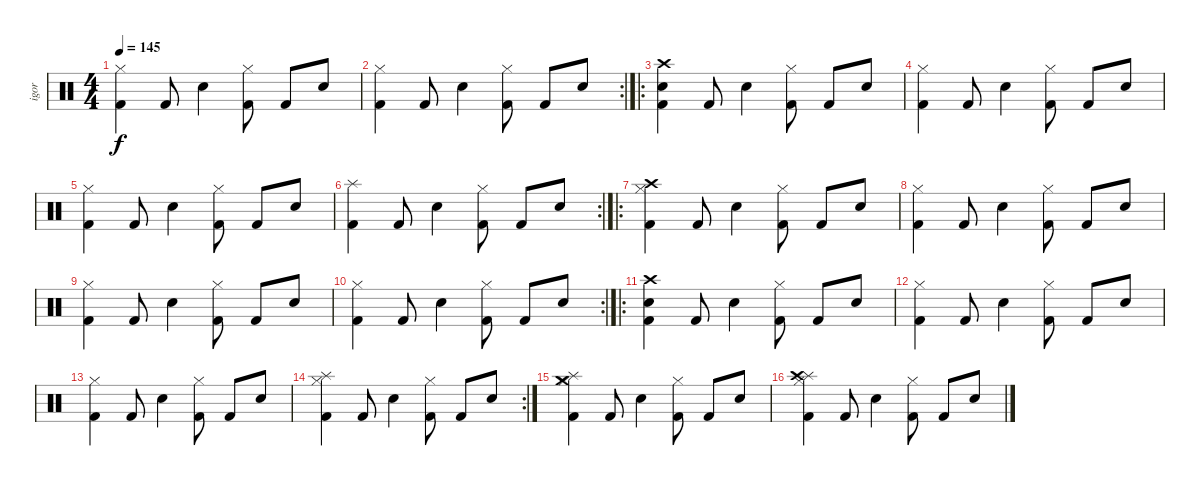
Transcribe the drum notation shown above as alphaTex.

\track ("igor" "igor") {instrument percussion}
\staff {score}
\articulation defaults
\ts (4 4)
\tempo 145
\clef neutral
\ks c
("Hi-Hat (closed)" "Kick (hit) 2").4{dy f} "Kick (hit) 2".8 "Electric Snare (hit)".4 ("Hi-Hat (closed)" "Kick (hit) 2").8 "Kick (hit) 2".8 "Electric Snare (hit)".8 |
\rc 2
("Hi-Hat (closed)" "Kick (hit) 2").4 "Kick (hit) 2".8 "Electric Snare (hit)".4 ("Hi-Hat (closed)" "Kick (hit) 2").8 "Kick (hit) 2".8 "Electric Snare (hit)".8 |
\ro
("Crash high (hit)" "Electric Snare (hit)" "Kick (hit) 2").4 "Kick (hit) 2".8 "Electric Snare (hit)".4 ("Hi-Hat (closed)" "Kick (hit) 2").8 "Kick (hit) 2".8 "Electric Snare (hit)".8 |
("Hi-Hat (closed)" "Kick (hit) 2").4 "Kick (hit) 2".8 "Electric Snare (hit)".4 ("Hi-Hat (closed)" "Kick (hit) 2").8 "Kick (hit) 2".8 "Electric Snare (hit)".8 |
("Hi-Hat (closed)" "Kick (hit) 2").4 "Kick (hit) 2".8 "Electric Snare (hit)".4 ("Hi-Hat (closed)" "Kick (hit) 2").8 "Kick (hit) 2".8 "Electric Snare (hit)".8 |
\rc 2
("Splash (hit)" "Kick (hit) 2").4 "Kick (hit) 2".8 "Electric Snare (hit)".4 ("Hi-Hat (closed)" "Kick (hit) 2").8 "Kick (hit) 2".8 "Electric Snare (hit)".8 |
\ro
("Crash high (hit)" "Hi-Hat (closed)" "Kick (hit) 2").4 "Kick (hit) 2".8 "Electric Snare (hit)".4 ("Hi-Hat (closed)" "Kick (hit) 2").8 "Kick (hit) 2".8 "Electric Snare (hit)".8 |
("Hi-Hat (closed)" "Kick (hit) 2").4 "Kick (hit) 2".8 "Electric Snare (hit)".4 ("Hi-Hat (closed)" "Kick (hit) 2").8 "Kick (hit) 2".8 "Electric Snare (hit)".8 |
("Hi-Hat (closed)" "Kick (hit) 2").4 "Kick (hit) 2".8 "Electric Snare (hit)".4 ("Hi-Hat (closed)" "Kick (hit) 2").8 "Kick (hit) 2".8 "Electric Snare (hit)".8 |
\rc 2
("Hi-Hat (closed)" "Kick (hit) 2").4 "Kick (hit) 2".8 "Electric Snare (hit)".4 ("Hi-Hat (closed)" "Kick (hit) 2").8 "Kick (hit) 2".8 "Electric Snare (hit)".8 |
\ro
("Crash high (hit)" "Electric Snare (hit)" "Kick (hit) 2").4 "Kick (hit) 2".8 "Electric Snare (hit)".4 ("Hi-Hat (closed)" "Kick (hit) 2").8 "Kick (hit) 2".8 "Electric Snare (hit)".8 |
("Hi-Hat (closed)" "Kick (hit) 2").4 "Kick (hit) 2".8 "Electric Snare (hit)".4 ("Hi-Hat (closed)" "Kick (hit) 2").8 "Kick (hit) 2".8 "Electric Snare (hit)".8 |
("Hi-Hat (closed)" "Kick (hit) 2").4 "Kick (hit) 2".8 "Electric Snare (hit)".4 ("Hi-Hat (closed)" "Kick (hit) 2").8 "Kick (hit) 2".8 "Electric Snare (hit)".8 |
\rc 2
("Splash (hit)" "Hi-Hat (closed)" "Kick (hit) 2").4 "Kick (hit) 2".8 "Electric Snare (hit)".4 ("Hi-Hat (closed)" "Kick (hit) 2").8 "Kick (hit) 2".8 "Electric Snare (hit)".8 |
("Splash (hit)" "Crash medium (hit)" "Hi-Hat (closed)" "Kick (hit) 2").4 "Kick (hit) 2".8 "Electric Snare (hit)".4 ("Hi-Hat (closed)" "Kick (hit) 2").8 "Kick (hit) 2".8 "Electric Snare (hit)".8 |
("Splash (hit)" "Crash high (hit)" "Hi-Hat (closed)" "Kick (hit) 2").4 "Kick (hit) 2".8 "Electric Snare (hit)".4 ("Hi-Hat (closed)" "Kick (hit) 2").8 "Kick (hit) 2".8 "Electric Snare (hit)".8
